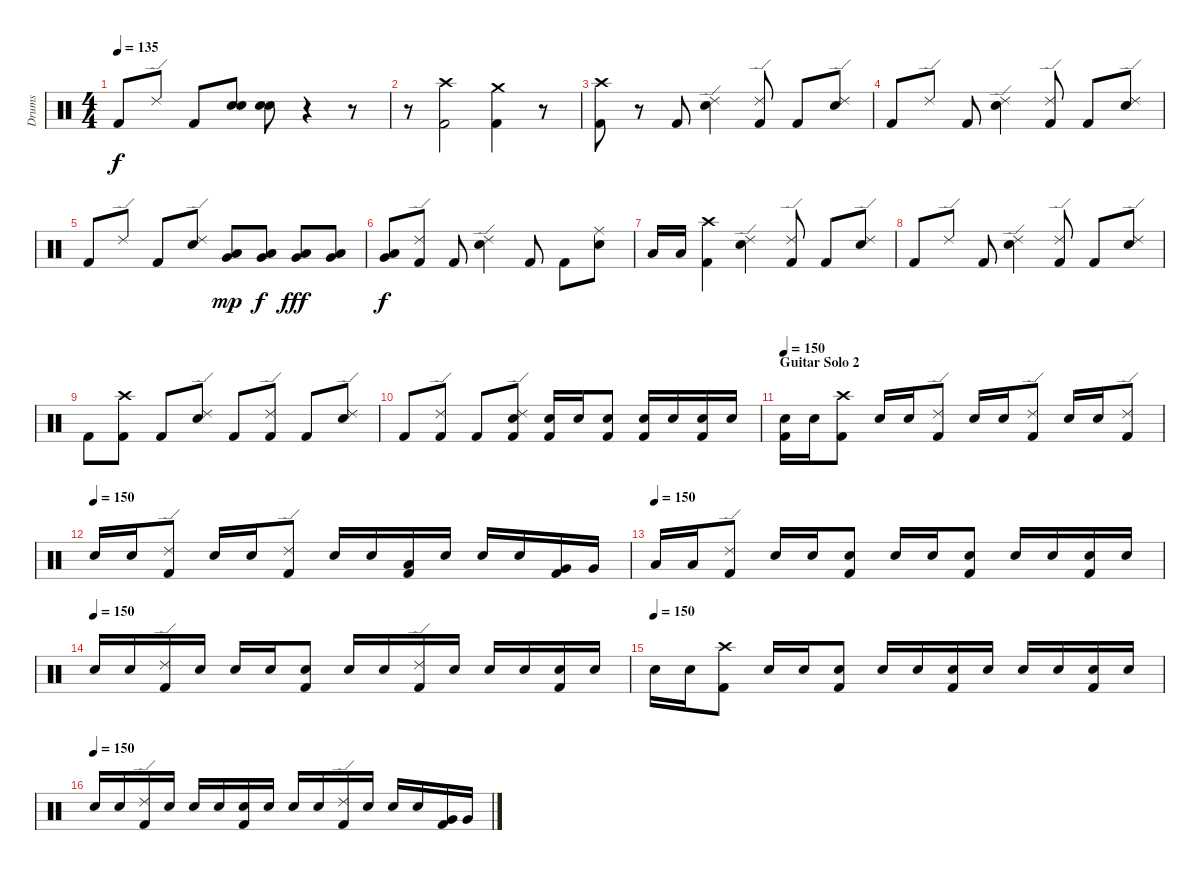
\track ("Drums" "Drums") {instrument percussion}
\staff {score}
\articulation defaults
\ts (4 4)
\tempo 135
\clef neutral
\ks c "Kick (hit) 2".8{dy f} "Ride (edge) 2".8 "Kick (hit) 2".8
("Snare (hit) 2" "Snare (hit) 2").8 ("Snare (hit) 2" "Snare (hit) 2").8 r.4 r.8 |
r.8 ("Crash high (hit)" "Kick (hit) 2").2 ("Crash medium (hit)" "Kick (hit) 2").4 r.8 |
("Crash high (hit)" "Kick (hit) 2").8 r.8 "Kick (hit) 2".8 ("Ride (edge) 2" "Snare (hit) 2").4 ("Ride (edge) 2" "Kick (hit) 2").8 "Kick (hit) 2".8 ("Ride (edge) 2" "Snare (hit) 2").8 |
"Kick (hit) 2".8 "Ride (edge) 2".8 "Kick (hit) 2".8 ("Ride (edge) 2" "Snare (hit) 2").4 ("Ride (edge) 2" "Kick (hit) 2").8 "Kick (hit) 2".8 ("Ride (edge) 2" "Snare (hit) 2").8 |
"Kick (hit) 2".8 "Ride (edge) 2".8 "Kick (hit) 2".8 ("Ride (edge) 2" "Snare (hit) 2").8 ("Low Floor Tom (hit)" "Very Low Tom (hit)").8{dy mp} ("Low Floor Tom (hit)" "Very Low Tom (hit)").8{dy f} ("Low Floor Tom (hit)" "Very Low Tom (hit)").8{dy fff} ("Low Floor Tom (hit)" "Very Low Tom (hit)").8 |
("Low Floor Tom (hit)" "Very Low Tom (hit)").8{dy f} ("Ride (edge) 2" "Kick (hit) 2").8 "Kick (hit) 2".8 ("Ride (edge) 2" "Snare (hit) 2").4 "Kick (hit) 2".8 "Kick (hit) 2".8 ("Ride (middle)" "Snare (hit) 2").8 |
"Low Floor Tom (hit)".16 "Low Floor Tom (hit)".16 ("Crash high (hit)" "Kick (hit) 2").4 ("Ride (edge) 2" "Snare (hit) 2").4 ("Ride (edge) 2" "Kick (hit) 2").8 "Kick (hit) 2".8 ("Ride (edge) 2" "Snare (hit) 2").8 |
"Kick (hit) 2".8 "Ride (edge) 2".8 "Kick (hit) 2".8 ("Ride (edge) 2" "Snare (hit) 2").4 ("Ride (edge) 2" "Kick (hit) 2").8 "Kick (hit) 2".8 ("Ride (edge) 2" "Snare (hit) 2").8 |
"Kick (hit) 2".8 ("Crash high (hit)" "Kick (hit) 2").8 "Kick (hit) 2".8 ("Ride (edge) 2" "Snare (hit) 2").8 "Kick (hit) 2".8 ("Ride (edge) 2" "Kick (hit) 2").8 "Kick (hit) 2".8 ("Ride (edge) 2" "Snare (hit) 2").8 |
"Kick (hit) 2".8 ("Ride (edge) 2" "Kick (hit) 2").8 "Kick (hit) 2".8 ("Ride (edge) 2" "Snare (hit) 2" "Kick (hit) 2").8 ("Snare (hit) 2" "Kick (hit) 2").16 "Snare (hit) 2".16 ("Snare (hit) 2" "Kick (hit) 2").8 ("Snare (hit) 2" "Kick (hit) 2").16 "Snare (hit) 2".16 ("Snare (hit) 2" "Kick (hit) 2").16 "Snare (hit) 2".16 |
\section ("" "Guitar Solo 2")
\tempo 150
("Snare (hit) 2" "Kick (hit) 2").16 "Snare (hit) 2".16 ("Crash high (hit)" "Kick (hit) 2").8 "Snare (hit) 2".16 "Snare (hit) 2".16 ("Ride (edge) 2" "Kick (hit) 2").8 "Snare (hit) 2".16 "Snare (hit) 2".16 ("Ride (edge) 2" "Kick (hit) 2").8 "Snare (hit) 2".16 "Snare (hit) 2".16 ("Ride (edge) 2" "Kick (hit) 2").8 |
\tempo (150)
"Snare (hit) 2".16 "Snare (hit) 2".16 ("Ride (edge) 2" "Kick (hit) 2").8 "Snare (hit) 2".16 "Snare (hit) 2".16 ("Ride (edge) 2" "Kick (hit) 2").8 "Snare (hit) 2".16 "Snare (hit) 2".16 ("Low Floor Tom (hit)" "Kick (hit) 2").16 "Snare (hit) 2".16 "Snare (hit) 2".16 "Snare (hit) 2".16 ("Very Low Tom (hit)" "Kick (hit) 2").16 "Very Low Tom (hit)".16 |
\tempo (150)
"Low Floor Tom (hit)".16 "Low Floor Tom (hit)".16 ("Ride (edge) 2" "Kick (hit) 2").8 "Snare (hit) 2".16 "Snare (hit) 2".16 ("Snare (hit) 2" "Kick (hit) 2").8 "Snare (hit) 2".16 "Snare (hit) 2".16 ("Snare (hit) 2" "Kick (hit) 2").8 "Snare (hit) 2".16 "Snare (hit) 2".16 ("Snare (hit) 2" "Kick (hit) 2").16 "Snare (hit) 2".16 |
\tempo (150)
"Snare (hit) 2".16 "Snare (hit) 2".16 ("Ride (edge) 2" "Kick (hit) 2").16 "Snare (hit) 2".16 "Snare (hit) 2".16 "Snare (hit) 2".16 ("Snare (hit) 2" "Kick (hit) 2").8 "Snare (hit) 2".16 "Snare (hit) 2".16 ("Ride (edge) 2" "Kick (hit) 2").16 "Snare (hit) 2".16 "Snare (hit) 2".16 "Snare (hit) 2".16 ("Snare (hit) 2" "Kick (hit) 2").16 "Snare (hit) 2".16 |
\tempo (150)
"Snare (hit) 2".16 "Snare (hit) 2".16 ("Crash high (hit)" "Kick (hit) 2").8 "Snare (hit) 2".16 "Snare (hit) 2".16 ("Snare (hit) 2" "Kick (hit) 2").8 "Snare (hit) 2".16 "Snare (hit) 2".16 ("Snare (hit) 2" "Kick (hit) 2").16 "Snare (hit) 2".16 "Snare (hit) 2".16 "Snare (hit) 2".16 ("Snare (hit) 2" "Kick (hit) 2").16 "Snare (hit) 2".16 |
\tempo (150)
"Snare (hit) 2".16 "Snare (hit) 2".16 ("Ride (edge) 2" "Kick (hit) 2").16 "Snare (hit) 2".16 "Snare (hit) 2".16 "Snare (hit) 2".16 ("Snare (hit) 2" "Kick (hit) 2").16 "Snare (hit) 2".16 "Snare (hit) 2".16 "Snare (hit) 2".16 ("Ride (edge) 2" "Kick (hit) 2").16 "Snare (hit) 2".16 "Snare (hit) 2".16 "Snare (hit) 2".16 ("Very Low Tom (hit)" "Kick (hit) 2").16 "Very Low Tom (hit)".16
